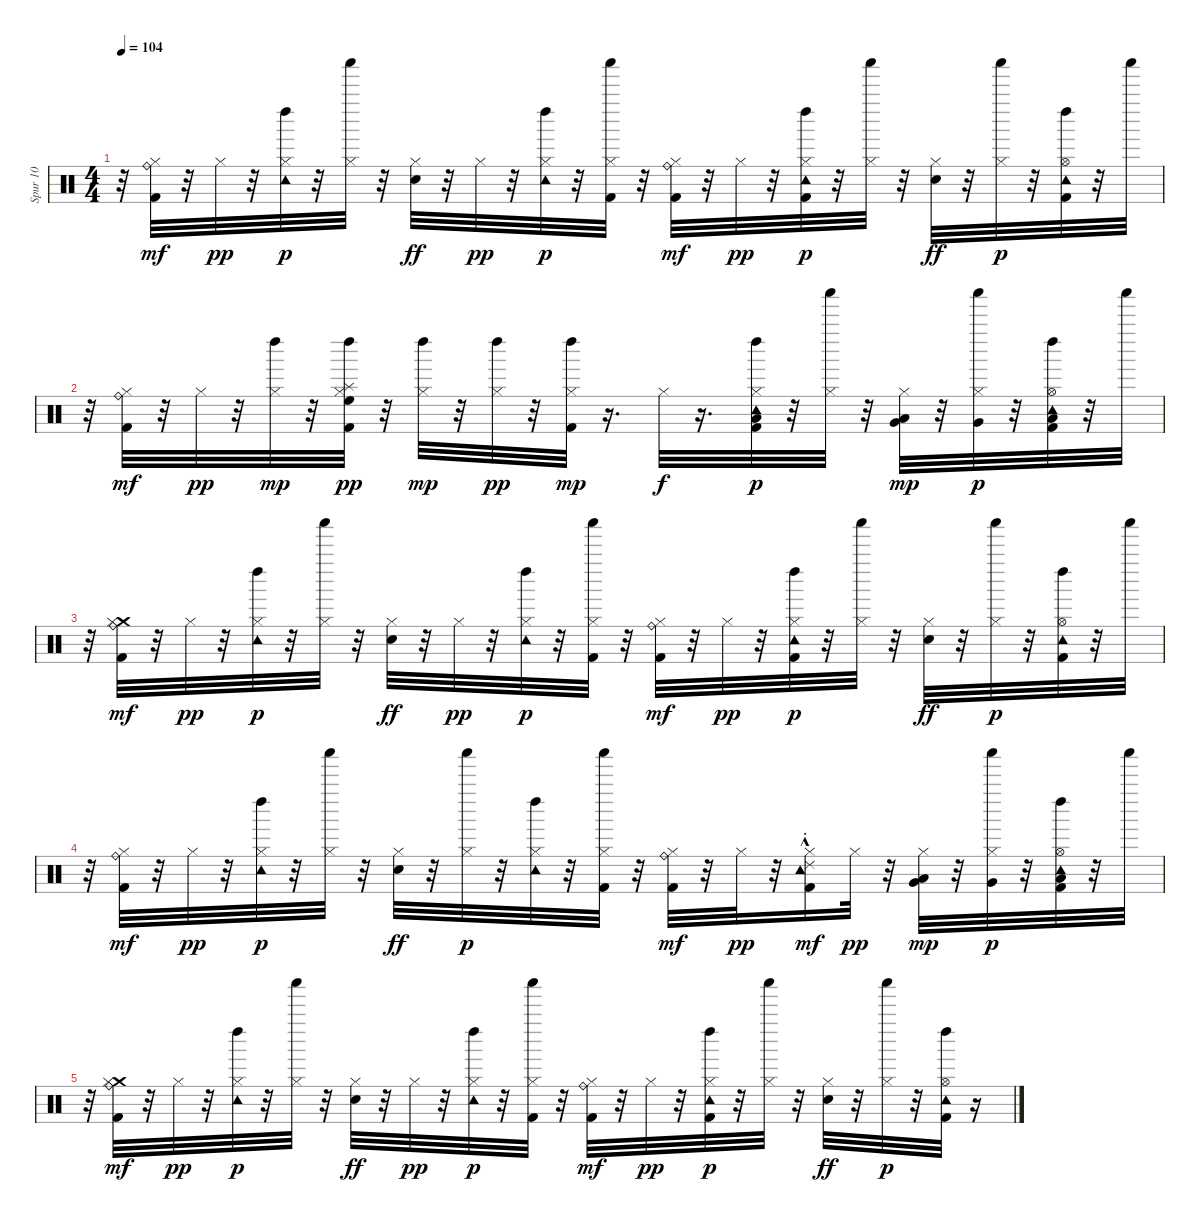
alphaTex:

\track ("Spur 10" "Spur 10") {instrument percussion}
\staff {score}
\articulation defaults
\ts (4 4)
\tempo 104
\clef neutral
\ks c
r.32{dy p} ("Hi-Hat (closed)" "Ride (bell)" "Kick (hit) 2").32{dy mf} r.32 "Hi-Hat (closed)".32{dy pp} r.32 ("Hi-Hat (closed)" "Tambourine (hit)" "Left Maraca (hit)").32{dy p} r.32 ("Hi-Hat (closed)" "Shaker (hit)").32 r.32 ("Hi-Hat (closed)" "Snare (hit) 2").32{dy ff} r.32 "Hi-Hat (closed)".32{dy pp} r.32 ("Hi-Hat (closed)" "Tambourine (hit)" "Left Maraca (hit)").32{dy p} r.32 ("Hi-Hat (closed)" "Kick (hit) 2" "Shaker (hit)").32 r.32 ("Hi-Hat (closed)" "Ride (bell)" "Kick (hit) 2").32{dy mf} r.32 "Hi-Hat (closed)".32{dy pp} r.32 ("Hi-Hat (closed)" "Tambourine (hit)" "Kick (hit) 2" "Left Maraca (hit)").32{dy p} r.32 ("Hi-Hat (closed)" "Shaker (hit)").32 r.32 ("Hi-Hat (closed)" "Snare (hit) 2").32{dy ff} r.32 ("Hi-Hat (closed)" "Shaker (hit)").32{dy p} r.32 ("Hi-Hat (open)" "Tambourine (hit)" "Kick (hit) 2" "Left Maraca (hit)").32 r.32 "Shaker (hit)".32 |
r.32 ("Hi-Hat (closed)" "Ride (bell)" "Kick (hit) 2").32{dy mf} r.32 "Hi-Hat (closed)".32{dy pp} r.32 ("Hi-Hat (closed)" "Left Maraca (hit)").32{dy mp} r.32 ("Hi-Hat (closed)" "High Floor Tom (hit)" "Splash (hit)" "Left Maraca (hit)" "Kick (hit) 2").32{dy pp} r.32 ("Hi-Hat (closed)" "Left Maraca (hit)").32{dy mp} r.32 ("Hi-Hat (closed)" "Left Maraca (hit)").32{dy pp} r.32 ("Hi-Hat (closed)" "Left Maraca (hit)" "Kick (hit) 2").32{dy mp} r.16{d} "Hi-Hat (closed)".32{dy f} r.16{d} ("Hi-Hat (closed)" "Low Tom (hit)" "Tambourine (hit)" "Kick (hit) 2" "Left Maraca (hit)").32{dy p} r.32 ("Hi-Hat (closed)" "Shaker (hit)").32 r.32 ("Hi-Hat (closed)" "Very Low Tom (hit)" "Low Tom (hit)").32{dy mp} r.32 ("Hi-Hat (closed)" "Very Low Tom (hit)" "Shaker (hit)").32{dy p} r.32 ("Low Floor Tom (hit)" "Hi-Hat (open)" "Tambourine (hit)" "Kick (hit) 2" "Left Maraca (hit)").32 r.32 "Shaker (hit)".32 |
r.32 ("Crash medium (hit)" "Hi-Hat (closed)" "Ride (bell)" "Kick (hit) 2").32{dy mf} r.32 "Hi-Hat (closed)".32{dy pp} r.32 ("Hi-Hat (closed)" "Tambourine (hit)" "Left Maraca (hit)").32{dy p} r.32 ("Hi-Hat (closed)" "Shaker (hit)").32 r.32 ("Hi-Hat (closed)" "Snare (hit) 2").32{dy ff} r.32 "Hi-Hat (closed)".32{dy pp} r.32 ("Hi-Hat (closed)" "Tambourine (hit)" "Left Maraca (hit)").32{dy p} r.32 ("Hi-Hat (closed)" "Kick (hit) 2" "Shaker (hit)").32 r.32 ("Hi-Hat (closed)" "Ride (bell)" "Kick (hit) 2").32{dy mf} r.32 "Hi-Hat (closed)".32{dy pp} r.32 ("Hi-Hat (closed)" "Tambourine (hit)" "Kick (hit) 2" "Left Maraca (hit)").32{dy p} r.32 ("Hi-Hat (closed)" "Shaker (hit)").32 r.32 ("Hi-Hat (closed)" "Snare (hit) 2").32{dy ff} r.32 ("Hi-Hat (closed)" "Shaker (hit)").32{dy p} r.32 ("Hi-Hat (open)" "Tambourine (hit)" "Kick (hit) 2" "Left Maraca (hit)").32 r.32 "Shaker (hit)".32 |
r.32 ("Hi-Hat (closed)" "Ride (bell)" "Kick (hit) 2").32{dy mf} r.32 "Hi-Hat (closed)".32{dy pp} r.32 ("Hi-Hat (closed)" "Tambourine (hit)" "Left Maraca (hit)").32{dy p} r.32 ("Hi-Hat (closed)" "Shaker (hit)").32 r.32 ("Hi-Hat (closed)" "Snare (hit) 2").32{dy ff} r.32 ("Hi-Hat (closed)" "Shaker (hit)").32{dy p} r.32 ("Hi-Hat (closed)" "Tambourine (hit)" "Left Maraca (hit)").32 r.32 ("Hi-Hat (closed)" "Kick (hit) 2" "Shaker (hit)").32 r.32 ("Hi-Hat (closed)" "Ride (bell)" "Kick (hit) 2").32{dy mf} r.32 "Hi-Hat (closed)".32{dy pp} r.32 ("Ride (choke) 2"{hac} "Hi-Hat (closed)" "Tambourine (hit)" "Kick (hit) 2").16{dy mf} "Hi-Hat (closed)".32{dy pp} r.32 ("Hi-Hat (closed)" "Very Low Tom (hit)" "Low Tom (hit)").32{dy mp} r.32 ("Hi-Hat (closed)" "Very Low Tom (hit)" "Shaker (hit)").32{dy p} r.32 ("Low Floor Tom (hit)" "Hi-Hat (open)" "Tambourine (hit)" "Kick (hit) 2" "Left Maraca (hit)").32 r.32 "Shaker (hit)".32 |
r.32 ("Crash medium (hit)" "Hi-Hat (closed)" "Ride (bell)" "Kick (hit) 2").32{dy mf} r.32 "Hi-Hat (closed)".32{dy pp} r.32 ("Hi-Hat (closed)" "Tambourine (hit)" "Left Maraca (hit)").32{dy p} r.32 ("Hi-Hat (closed)" "Shaker (hit)").32 r.32 ("Hi-Hat (closed)" "Snare (hit) 2").32{dy ff} r.32 "Hi-Hat (closed)".32{dy pp} r.32 ("Hi-Hat (closed)" "Tambourine (hit)" "Left Maraca (hit)").32{dy p} r.32 ("Hi-Hat (closed)" "Kick (hit) 2" "Shaker (hit)").32 r.32 ("Hi-Hat (closed)" "Ride (bell)" "Kick (hit) 2").32{dy mf} r.32 "Hi-Hat (closed)".32{dy pp} r.32 ("Hi-Hat (closed)" "Tambourine (hit)" "Kick (hit) 2" "Left Maraca (hit)").32{dy p} r.32 ("Hi-Hat (closed)" "Shaker (hit)").32 r.32 ("Hi-Hat (closed)" "Snare (hit) 2").32{dy ff} r.32 ("Hi-Hat (closed)" "Shaker (hit)").32{dy p} r.32 ("Hi-Hat (open)" "Tambourine (hit)" "Kick (hit) 2" "Left Maraca (hit)").32 r.16
